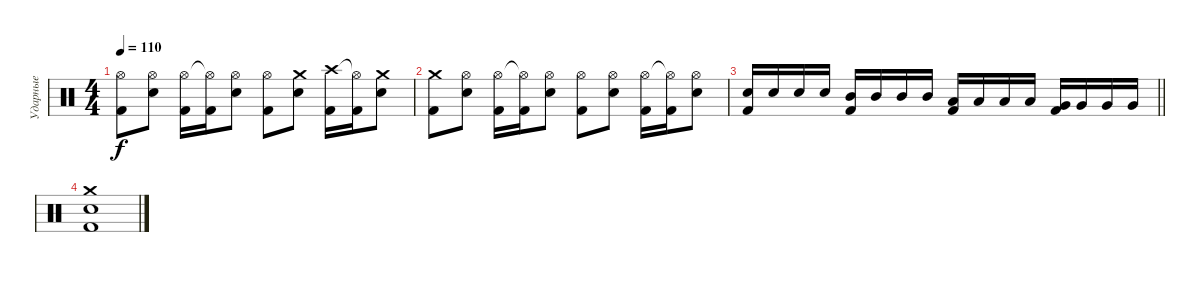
\track ("Ударные" "Ударные") {instrument percussion}
\staff {score}
\articulation defaults
\ts (4 4)
\tempo 110
\clef neutral
\ks c
("Hi-Hat (open)" "Kick (hit) 2").8{dy f} ("Hi-Hat (open)" "Snare (hit) 2").8 ("Hi-Hat (open)" "Kick (hit) 2").16 ("Hi-Hat (open)"{t} "Kick (hit) 2").16 ("Hi-Hat (open)" "Snare (hit) 2").8 ("Hi-Hat (open)" "Kick (hit) 2").8 ("Crash medium (hit)" "Snare (hit) 2").8 ("Crash high (hit)" "Kick (hit) 2").16 ("Hi-Hat (open)"{t} "Kick (hit) 2").16 ("Crash medium (hit)" "Snare (hit) 2").8 |
("Crash medium (hit)" "Kick (hit) 2").8 ("Hi-Hat (open)" "Snare (hit) 2").8 ("Hi-Hat (open)" "Kick (hit) 2").16 ("Hi-Hat (open)"{t} "Kick (hit) 2").16 ("Hi-Hat (open)" "Snare (hit) 2").8 ("Hi-Hat (open)" "Kick (hit) 2").8 ("Hi-Hat (open)" "Snare (hit) 2").8 ("Hi-Hat (open)" "Kick (hit) 2").16 ("Hi-Hat (open)"{t} "Kick (hit) 2").16 ("Hi-Hat (open)" "Snare (hit) 2").8 |
\barLineRight lightlight
("Snare (hit) 2" "Kick (hit) 2").16 "Snare (hit) 2".16 "Snare (hit) 2".16 "Snare (hit) 2".16 ("Mid Tom (hit)" "Kick (hit) 2").16 "Mid Tom (hit)".16 "Mid Tom (hit)".16 "Mid Tom (hit)".16 ("Low Tom (hit)" "Kick (hit) 2").16 "Low Tom (hit)".16 "Low Tom (hit)".16 "Low Tom (hit)".16 ("Very Low Tom (hit)" "Kick (hit) 2").16 "Very Low Tom (hit)".16 "Very Low Tom (hit)".16 "Very Low Tom (hit)".16 |
("Crash medium (hit)" "Snare (hit) 2" "Kick (hit) 2").1
